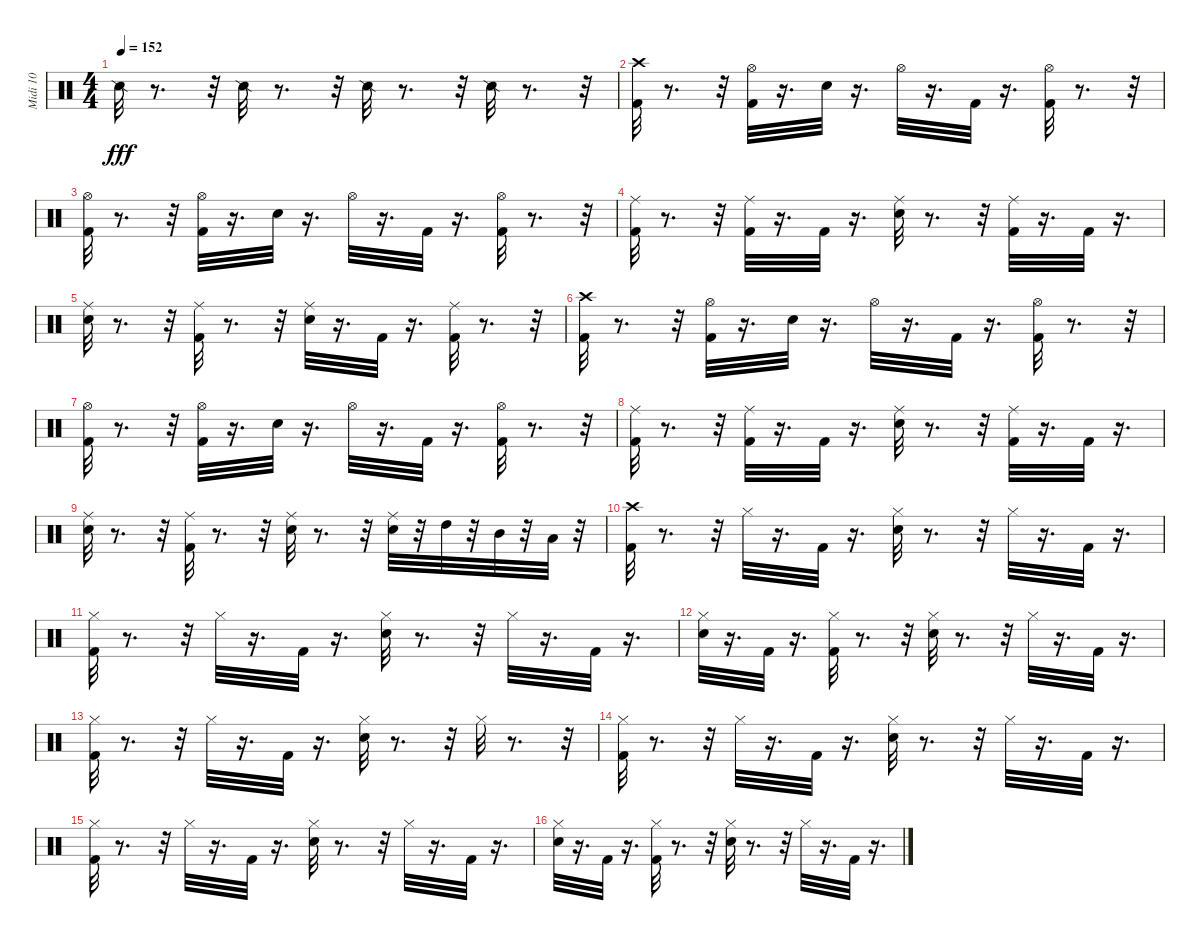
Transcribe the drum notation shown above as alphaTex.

\track ("Midi 10" "Midi 10") {instrument percussion}
\staff {score}
\articulation defaults
\ts (4 4)
\tempo 152
\clef neutral
\ks c "Snare (side stick) 2".32{dy fff}
r.8{d} r.32 "Snare (side stick) 2".32 r.8{d} r.32 "Snare (side stick) 2".32 r.8{d} r.32 "Snare (side stick) 2".32 r.8{d} r.32 |
("Crash high (hit)" "Kick (hit) 2").32 r.8{d} r.32 ("Kick (hit) 2" "Hi-Hat (open)").32 r.16{d} "Electric Snare (hit)".32 r.16{d} "Hi-Hat (open)".32 r.16{d} "Kick (hit) 2".32 r.16{d} ("Kick (hit) 2" "Hi-Hat (open)").32 r.8{d} r.32 |
("Hi-Hat (open)" "Kick (hit) 2").32 r.8{d} r.32 ("Hi-Hat (open)" "Kick (hit) 2").32 r.16{d} "Electric Snare (hit)".32 r.16{d} "Hi-Hat (open)".32 r.16{d} "Kick (hit) 2".32 r.16{d} ("Hi-Hat (open)" "Kick (hit) 2").32 r.8{d} r.32 |
("Ride (middle)" "Kick (hit) 2").32 r.8{d} r.32 ("Ride (middle)" "Kick (hit) 2").32 r.16{d} "Kick (hit) 2".32 r.16{d} ("Ride (middle)" "Electric Snare (hit)").32 r.8{d} r.32 ("Kick (hit) 2" "Ride (middle)").32 r.16{d} "Kick (hit) 2".32 r.16{d} |
("Ride (middle)" "Electric Snare (hit)").32 r.8{d} r.32 ("Ride (middle)" "Kick (hit) 2").32 r.8{d} r.32 ("Ride (middle)" "Electric Snare (hit)").32 r.16{d} "Kick (hit) 2".32 r.16{d} ("Ride (middle)" "Kick (hit) 2").32 r.8{d} r.32 |
("Kick (hit) 2" "Crash high (hit)").32 r.8{d} r.32 ("Hi-Hat (open)" "Kick (hit) 2").32 r.16{d} "Electric Snare (hit)".32 r.16{d} "Hi-Hat (open)".32 r.16{d} "Kick (hit) 2".32 r.16{d} ("Hi-Hat (open)" "Kick (hit) 2").32 r.8{d} r.32 |
("Kick (hit) 2" "Hi-Hat (open)").32 r.8{d} r.32 ("Kick (hit) 2" "Hi-Hat (open)").32 r.16{d} "Electric Snare (hit)".32 r.16{d} "Hi-Hat (open)".32 r.16{d} "Kick (hit) 2".32 r.16{d} ("Kick (hit) 2" "Hi-Hat (open)").32 r.8{d} r.32 |
("Ride (middle)" "Kick (hit) 2").32 r.8{d} r.32 ("Ride (middle)" "Kick (hit) 2").32 r.16{d} "Kick (hit) 2".32 r.16{d} ("Ride (middle)" "Electric Snare (hit)").32 r.8{d} r.32 ("Ride (middle)" "Kick (hit) 2").32 r.16{d} "Kick (hit) 2".32 r.16{d} |
("Ride (middle)" "Electric Snare (hit)").32 r.8{d} r.32 ("Ride (middle)" "Kick (hit) 2").32 r.8{d} r.32 ("Ride (middle)" "Electric Snare (hit)").32 r.8{d} r.32 ("Ride (middle)" "Electric Snare (hit)").32 r.32 "High Tom (hit)".32 r.32 "Mid Tom (hit)".32 r.32 "Low Tom (hit)".32 r.32 |
("Kick (hit) 2" "Crash high (hit)").32 r.8{d} r.32 "Hi-Hat (closed)".32 r.16{d} "Kick (hit) 2".32 r.16{d} ("Electric Snare (hit)" "Hi-Hat (closed)").32 r.8{d} r.32 "Hi-Hat (closed)".32 r.16{d} "Kick (hit) 2".32 r.16{d} |
("Kick (hit) 2" "Hi-Hat (closed)").32 r.8{d} r.32 "Hi-Hat (closed)".32 r.16{d} "Kick (hit) 2".32 r.16{d} ("Electric Snare (hit)" "Hi-Hat (closed)").32 r.8{d} r.32 "Hi-Hat (closed)".32 r.16{d} "Kick (hit) 2".32 r.16{d} |
("Electric Snare (hit)" "Hi-Hat (closed)").32 r.16{d} "Kick (hit) 2".32 r.16{d} ("Kick (hit) 2" "Hi-Hat (closed)").32 r.8{d} r.32 ("Electric Snare (hit)" "Hi-Hat (closed)").32 r.8{d} r.32 "Hi-Hat (closed)".32 r.16{d} "Kick (hit) 2".32 r.16{d} |
("Kick (hit) 2" "Hi-Hat (closed)").32 r.8{d} r.32 "Hi-Hat (closed)".32 r.16{d} "Kick (hit) 2".32 r.16{d} ("Electric Snare (hit)" "Hi-Hat (closed)").32 r.8{d} r.32 "Hi-Hat (closed)".32 r.8{d} r.32 |
("Kick (hit) 2" "Hi-Hat (closed)").32 r.8{d} r.32 "Hi-Hat (closed)".32 r.16{d} "Kick (hit) 2".32 r.16{d} ("Electric Snare (hit)" "Hi-Hat (closed)").32 r.8{d} r.32 "Hi-Hat (closed)".32 r.16{d} "Kick (hit) 2".32 r.16{d} |
("Kick (hit) 2" "Hi-Hat (closed)").32 r.8{d} r.32 "Hi-Hat (closed)".32 r.16{d} "Kick (hit) 2".32 r.16{d} ("Electric Snare (hit)" "Hi-Hat (closed)").32 r.8{d} r.32 "Hi-Hat (closed)".32 r.16{d} "Kick (hit) 2".32 r.16{d} |
("Electric Snare (hit)" "Hi-Hat (closed)").32 r.16{d} "Kick (hit) 2".32 r.16{d} ("Kick (hit) 2" "Hi-Hat (closed)").32 r.8{d} r.32 ("Electric Snare (hit)" "Hi-Hat (closed)").32 r.8{d} r.32 "Hi-Hat (closed)".32 r.16{d} "Kick (hit) 2".32 r.16{d}
